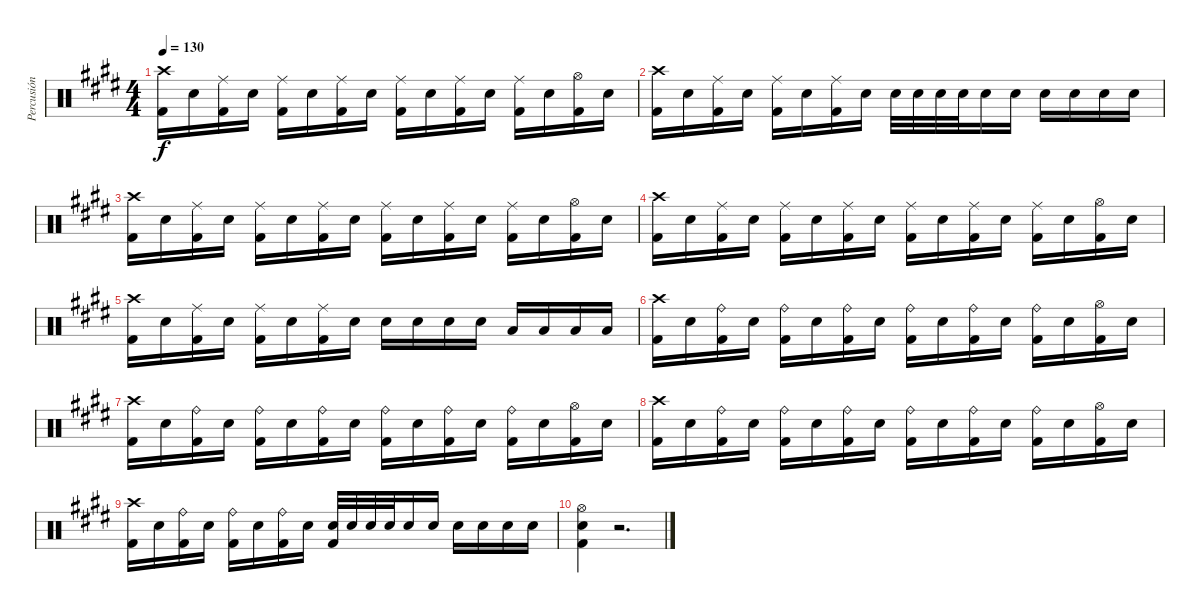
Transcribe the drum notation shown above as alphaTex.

\track ("Percusión" "Percusión") {instrument percussion}
\staff {score}
\articulation defaults
\ts (4 4)
\tempo 130
\clef neutral
\ks e
("Crash high (hit)" "Kick (hit) 2").16{dy f} "Electric Snare (hit)".16 ("Ride (middle)" "Kick (hit) 2").16 "Electric Snare (hit)".16 ("Ride (middle)" "Kick (hit) 2").16 "Electric Snare (hit)".16 ("Ride (middle)" "Kick (hit) 2").16 "Electric Snare (hit)".16 ("Ride (middle)" "Kick (hit) 2").16 "Electric Snare (hit)".16 ("Ride (middle)" "Kick (hit) 2").16 "Electric Snare (hit)".16 ("Ride (middle)" "Kick (hit) 2").16 "Electric Snare (hit)".16 ("Hi-Hat (open)" "Kick (hit) 2").16 "Electric Snare (hit)".16 |
("Crash high (hit)" "Kick (hit) 2").16 "Electric Snare (hit)".16 ("Ride (middle)" "Kick (hit) 2").16 "Electric Snare (hit)".16 ("Ride (middle)" "Kick (hit) 2").16 "Electric Snare (hit)".16 ("Ride (middle)" "Kick (hit) 2").16 "Electric Snare (hit)".16 "Electric Snare (hit)".32 "Electric Snare (hit)".32 "Electric Snare (hit)".32 "Electric Snare (hit)".32 "Electric Snare (hit)".16 "Electric Snare (hit)".16 "Electric Snare (hit)".16 "Electric Snare (hit)".16 "Electric Snare (hit)".16 "Electric Snare (hit)".16 |
("Crash high (hit)" "Kick (hit) 2").16 "Electric Snare (hit)".16 ("Ride (middle)" "Kick (hit) 2").16 "Electric Snare (hit)".16 ("Ride (middle)" "Kick (hit) 2").16 "Electric Snare (hit)".16 ("Ride (middle)" "Kick (hit) 2").16 "Electric Snare (hit)".16 ("Ride (middle)" "Kick (hit) 2").16 "Electric Snare (hit)".16 ("Ride (middle)" "Kick (hit) 2").16 "Electric Snare (hit)".16 ("Ride (middle)" "Kick (hit) 2").16 "Electric Snare (hit)".16 ("Hi-Hat (open)" "Kick (hit) 2").16 "Electric Snare (hit)".16 |
("Crash high (hit)" "Kick (hit) 2").16 "Electric Snare (hit)".16 ("Ride (middle)" "Kick (hit) 2").16 "Electric Snare (hit)".16 ("Ride (middle)" "Kick (hit) 2").16 "Electric Snare (hit)".16 ("Ride (middle)" "Kick (hit) 2").16 "Electric Snare (hit)".16 ("Ride (middle)" "Kick (hit) 2").16 "Electric Snare (hit)".16 ("Ride (middle)" "Kick (hit) 2").16 "Electric Snare (hit)".16 ("Ride (middle)" "Kick (hit) 2").16 "Electric Snare (hit)".16 ("Hi-Hat (open)" "Kick (hit) 2").16 "Electric Snare (hit)".16 |
("Crash high (hit)" "Kick (hit) 2").16 "Electric Snare (hit)".16 ("Ride (middle)" "Kick (hit) 2").16 "Electric Snare (hit)".16 ("Ride (middle)" "Kick (hit) 2").16 "Electric Snare (hit)".16 ("Ride (middle)" "Kick (hit) 2").16 "Electric Snare (hit)".16 "Electric Snare (hit)".16 "Electric Snare (hit)".16 "Electric Snare (hit)".16 "Electric Snare (hit)".16 "Low Tom (hit)".16 "Low Tom (hit)".16 "Low Tom (hit)".16 "Low Tom (hit)".16 |
("Crash high (hit)" "Kick (hit) 2").16 "Electric Snare (hit)".16 ("Ride (bell)" "Kick (hit) 2").16 "Electric Snare (hit)".16 ("Ride (bell)" "Kick (hit) 2").16 "Electric Snare (hit)".16 ("Ride (bell)" "Kick (hit) 2").16 "Electric Snare (hit)".16 ("Ride (bell)" "Kick (hit) 2").16 "Electric Snare (hit)".16 ("Ride (bell)" "Kick (hit) 2").16 "Electric Snare (hit)".16 ("Ride (bell)" "Kick (hit) 2").16 "Electric Snare (hit)".16 ("Hi-Hat (open)" "Kick (hit) 2").16 "Electric Snare (hit)".16 |
("Crash high (hit)" "Kick (hit) 2").16 "Electric Snare (hit)".16 ("Ride (bell)" "Kick (hit) 2").16 "Electric Snare (hit)".16 ("Ride (bell)" "Kick (hit) 2").16 "Electric Snare (hit)".16 ("Ride (bell)" "Kick (hit) 2").16 "Electric Snare (hit)".16 ("Ride (bell)" "Kick (hit) 2").16 "Electric Snare (hit)".16 ("Ride (bell)" "Kick (hit) 2").16 "Electric Snare (hit)".16 ("Ride (bell)" "Kick (hit) 2").16 "Electric Snare (hit)".16 ("Hi-Hat (open)" "Kick (hit) 2").16 "Electric Snare (hit)".16 |
("Crash high (hit)" "Kick (hit) 2").16 "Electric Snare (hit)".16 ("Ride (bell)" "Kick (hit) 2").16 "Electric Snare (hit)".16 ("Ride (bell)" "Kick (hit) 2").16 "Electric Snare (hit)".16 ("Ride (bell)" "Kick (hit) 2").16 "Electric Snare (hit)".16 ("Ride (bell)" "Kick (hit) 2").16 "Electric Snare (hit)".16 ("Ride (bell)" "Kick (hit) 2").16 "Electric Snare (hit)".16 ("Ride (bell)" "Kick (hit) 2").16 "Electric Snare (hit)".16 ("Hi-Hat (open)" "Kick (hit) 2").16 "Electric Snare (hit)".16 |
("Crash high (hit)" "Kick (hit) 2").16 "Electric Snare (hit)".16 ("Ride (bell)" "Kick (hit) 2").16 "Electric Snare (hit)".16 ("Ride (bell)" "Kick (hit) 2").16 "Electric Snare (hit)".16 ("Ride (bell)" "Kick (hit) 2").16 "Electric Snare (hit)".16 ("Electric Snare (hit)" "Kick (hit) 2").32 "Electric Snare (hit)".32 "Electric Snare (hit)".32 "Electric Snare (hit)".32 "Electric Snare (hit)".16 "Electric Snare (hit)".16 "Electric Snare (hit)".16 "Electric Snare (hit)".16 "Electric Snare (hit)".16 "Electric Snare (hit)".16 |
("Hi-Hat (open)" "Electric Snare (hit)" "Kick (hit) 2").4 r.2{d}
